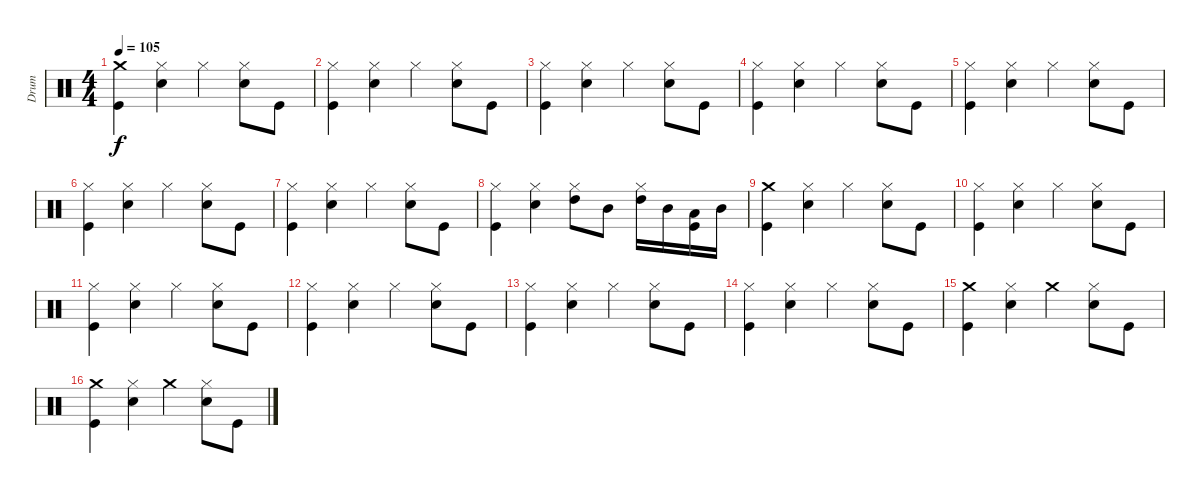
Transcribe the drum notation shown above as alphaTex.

\track ("Drum" "Drum") {instrument percussion}
\staff {score}
\articulation defaults
\ts (4 4)
\tempo 105
\clef neutral
\ks c
("Crash medium (hit)" "Kick (hit)").4{dy f} ("Hi-Hat (closed)" "Snare (hit) 2").4 "Hi-Hat (closed)".4 ("Hi-Hat (closed)" "Snare (hit) 2").8 "Kick (hit)".8 |
("Hi-Hat (closed)" "Kick (hit)").4 ("Hi-Hat (closed)" "Snare (hit) 2").4 "Hi-Hat (closed)".4 ("Hi-Hat (closed)" "Snare (hit) 2").8 "Kick (hit)".8 |
("Hi-Hat (closed)" "Kick (hit)").4 ("Hi-Hat (closed)" "Snare (hit) 2").4 "Hi-Hat (closed)".4 ("Hi-Hat (closed)" "Snare (hit) 2").8 "Kick (hit)".8 |
("Hi-Hat (closed)" "Kick (hit)").4 ("Hi-Hat (closed)" "Snare (hit) 2").4 "Hi-Hat (closed)".4 ("Hi-Hat (closed)" "Snare (hit) 2").8 "Kick (hit)".8 |
("Hi-Hat (closed)" "Kick (hit)").4 ("Hi-Hat (closed)" "Snare (hit) 2").4 "Hi-Hat (closed)".4 ("Hi-Hat (closed)" "Snare (hit) 2").8 "Kick (hit)".8 |
("Hi-Hat (closed)" "Kick (hit)").4 ("Hi-Hat (closed)" "Snare (hit) 2").4 "Hi-Hat (closed)".4 ("Hi-Hat (closed)" "Snare (hit) 2").8 "Kick (hit)".8 |
("Hi-Hat (closed)" "Kick (hit)").4 ("Hi-Hat (closed)" "Snare (hit) 2").4 "Hi-Hat (closed)".4 ("Hi-Hat (closed)" "Snare (hit) 2").8 "Kick (hit)".8 |
("Hi-Hat (closed)" "Kick (hit)").4 ("Hi-Hat (closed)" "Snare (hit) 2").4 ("Hi-Hat (closed)" "High Tom (hit)").8 "Mid Tom (hit)".8 ("Hi-Hat (closed)" "High Tom (hit)").16 "Mid Tom (hit)".16 ("Low Tom (hit)" "Kick (hit)").16 "Mid Tom (hit)".16 |
("Crash medium (hit)" "Kick (hit)").4 ("Hi-Hat (closed)" "Snare (hit) 2").4 "Hi-Hat (closed)".4 ("Hi-Hat (closed)" "Snare (hit) 2").8 "Kick (hit)".8 |
("Hi-Hat (closed)" "Kick (hit)").4 ("Hi-Hat (closed)" "Snare (hit) 2").4 "Hi-Hat (closed)".4 ("Hi-Hat (closed)" "Snare (hit) 2").8 "Kick (hit)".8 |
("Hi-Hat (closed)" "Kick (hit)").4 ("Hi-Hat (closed)" "Snare (hit) 2").4 "Hi-Hat (closed)".4 ("Hi-Hat (closed)" "Snare (hit) 2").8 "Kick (hit)".8 |
("Hi-Hat (closed)" "Kick (hit)").4 ("Hi-Hat (closed)" "Snare (hit) 2").4 "Hi-Hat (closed)".4 ("Hi-Hat (closed)" "Snare (hit) 2").8 "Kick (hit)".8 |
("Hi-Hat (closed)" "Kick (hit)").4 ("Hi-Hat (closed)" "Snare (hit) 2").4 "Hi-Hat (closed)".4 ("Hi-Hat (closed)" "Snare (hit) 2").8 "Kick (hit)".8 |
("Hi-Hat (closed)" "Kick (hit)").4 ("Hi-Hat (closed)" "Snare (hit) 2").4 "Hi-Hat (closed)".4 ("Hi-Hat (closed)" "Snare (hit) 2").8 "Kick (hit)".8 |
("Crash medium (hit)" "Kick (hit)").4 ("Hi-Hat (closed)" "Snare (hit) 2").4 "Crash medium (hit)".4 ("Hi-Hat (closed)" "Snare (hit) 2").8 "Kick (hit)".8 |
("Crash medium (hit)" "Kick (hit)").4 ("Hi-Hat (closed)" "Snare (hit) 2").4 "Crash medium (hit)".4 ("Hi-Hat (closed)" "Snare (hit) 2").8 "Kick (hit)".8
